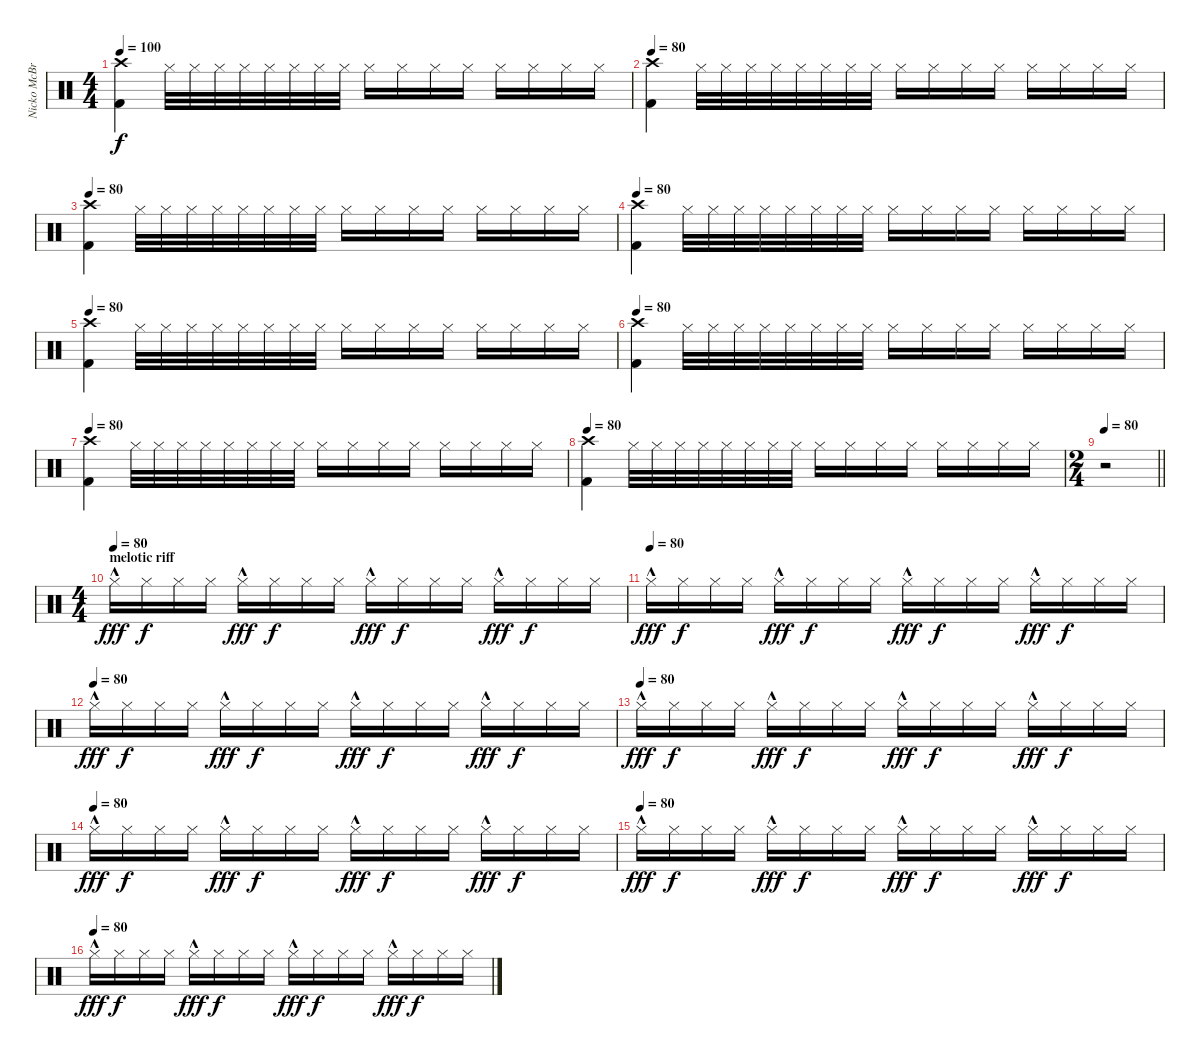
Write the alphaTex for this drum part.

\track ("Nicko McBrain" "Nicko McBr") {instrument percussion}
\staff {score}
\articulation defaults
\ts (4 4)
\tempo 100
\tempo 80
\tempo 100
\clef neutral
\ks c
("Crash high (hit)" "Kick (hit) 2").4{dy f} "Hi-Hat (closed)".32 "Hi-Hat (closed)".32 "Hi-Hat (closed)".32 "Hi-Hat (closed)".32 "Hi-Hat (closed)".32 "Hi-Hat (closed)".32 "Hi-Hat (closed)".32 "Hi-Hat (closed)".32 "Hi-Hat (closed)".16 "Hi-Hat (closed)".16 "Hi-Hat (closed)".16 "Hi-Hat (closed)".16 "Hi-Hat (closed)".16 "Hi-Hat (closed)".16 "Hi-Hat (closed)".16 "Hi-Hat (closed)".16 |
\tempo 80
("Crash high (hit)" "Kick (hit) 2").4 "Hi-Hat (closed)".32 "Hi-Hat (closed)".32 "Hi-Hat (closed)".32 "Hi-Hat (closed)".32 "Hi-Hat (closed)".32 "Hi-Hat (closed)".32 "Hi-Hat (closed)".32 "Hi-Hat (closed)".32 "Hi-Hat (closed)".16 "Hi-Hat (closed)".16 "Hi-Hat (closed)".16 "Hi-Hat (closed)".16 "Hi-Hat (closed)".16 "Hi-Hat (closed)".16 "Hi-Hat (closed)".16 "Hi-Hat (closed)".16 |
\tempo 80
("Crash high (hit)" "Kick (hit) 2").4 "Hi-Hat (closed)".32 "Hi-Hat (closed)".32 "Hi-Hat (closed)".32 "Hi-Hat (closed)".32 "Hi-Hat (closed)".32 "Hi-Hat (closed)".32 "Hi-Hat (closed)".32 "Hi-Hat (closed)".32 "Hi-Hat (closed)".16 "Hi-Hat (closed)".16 "Hi-Hat (closed)".16 "Hi-Hat (closed)".16 "Hi-Hat (closed)".16 "Hi-Hat (closed)".16 "Hi-Hat (closed)".16 "Hi-Hat (closed)".16 |
\tempo 80
("Crash high (hit)" "Kick (hit) 2").4 "Hi-Hat (closed)".32 "Hi-Hat (closed)".32 "Hi-Hat (closed)".32 "Hi-Hat (closed)".32 "Hi-Hat (closed)".32 "Hi-Hat (closed)".32 "Hi-Hat (closed)".32 "Hi-Hat (closed)".32 "Hi-Hat (closed)".16 "Hi-Hat (closed)".16 "Hi-Hat (closed)".16 "Hi-Hat (closed)".16 "Hi-Hat (closed)".16 "Hi-Hat (closed)".16 "Hi-Hat (closed)".16 "Hi-Hat (closed)".16 |
\tempo 80
("Crash high (hit)" "Kick (hit) 2").4 "Hi-Hat (closed)".32 "Hi-Hat (closed)".32 "Hi-Hat (closed)".32 "Hi-Hat (closed)".32 "Hi-Hat (closed)".32 "Hi-Hat (closed)".32 "Hi-Hat (closed)".32 "Hi-Hat (closed)".32 "Hi-Hat (closed)".16 "Hi-Hat (closed)".16 "Hi-Hat (closed)".16 "Hi-Hat (closed)".16 "Hi-Hat (closed)".16 "Hi-Hat (closed)".16 "Hi-Hat (closed)".16 "Hi-Hat (closed)".16 |
\tempo 80
("Crash high (hit)" "Kick (hit) 2").4 "Hi-Hat (closed)".32 "Hi-Hat (closed)".32 "Hi-Hat (closed)".32 "Hi-Hat (closed)".32 "Hi-Hat (closed)".32 "Hi-Hat (closed)".32 "Hi-Hat (closed)".32 "Hi-Hat (closed)".32 "Hi-Hat (closed)".16 "Hi-Hat (closed)".16 "Hi-Hat (closed)".16 "Hi-Hat (closed)".16 "Hi-Hat (closed)".16 "Hi-Hat (closed)".16 "Hi-Hat (closed)".16 "Hi-Hat (closed)".16 |
\tempo 80
("Crash high (hit)" "Kick (hit) 2").4 "Hi-Hat (closed)".32 "Hi-Hat (closed)".32 "Hi-Hat (closed)".32 "Hi-Hat (closed)".32 "Hi-Hat (closed)".32 "Hi-Hat (closed)".32 "Hi-Hat (closed)".32 "Hi-Hat (closed)".32 "Hi-Hat (closed)".16 "Hi-Hat (closed)".16 "Hi-Hat (closed)".16 "Hi-Hat (closed)".16 "Hi-Hat (closed)".16 "Hi-Hat (closed)".16 "Hi-Hat (closed)".16 "Hi-Hat (closed)".16 |
\tempo 80
("Crash high (hit)" "Kick (hit) 2").4 "Hi-Hat (closed)".32 "Hi-Hat (closed)".32 "Hi-Hat (closed)".32 "Hi-Hat (closed)".32 "Hi-Hat (closed)".32 "Hi-Hat (closed)".32 "Hi-Hat (closed)".32 "Hi-Hat (closed)".32 "Hi-Hat (closed)".16 "Hi-Hat (closed)".16 "Hi-Hat (closed)".16 "Hi-Hat (closed)".16 "Hi-Hat (closed)".16 "Hi-Hat (closed)".16 "Hi-Hat (closed)".16 "Hi-Hat (closed)".16 |
\ts (2 4)
\tempo 80
\barLineRight lightlight
r.2 |
\ts (4 4)
\section ("" "melotic riff")
\tempo (80)
"Hi-Hat (closed)"{hac}.16{dy fff} "Hi-Hat (closed)".16{dy f} "Hi-Hat (closed)".16 "Hi-Hat (closed)".16 "Hi-Hat (closed)"{hac}.16{dy fff} "Hi-Hat (closed)".16{dy f} "Hi-Hat (closed)".16 "Hi-Hat (closed)".16 "Hi-Hat (closed)"{hac}.16{dy fff} "Hi-Hat (closed)".16{dy f} "Hi-Hat (closed)".16 "Hi-Hat (closed)".16 "Hi-Hat (closed)"{hac}.16{dy fff} "Hi-Hat (closed)".16{dy f} "Hi-Hat (closed)".16 "Hi-Hat (closed)".16 |
\tempo (80)
"Hi-Hat (closed)"{hac}.16{dy fff} "Hi-Hat (closed)".16{dy f} "Hi-Hat (closed)".16 "Hi-Hat (closed)".16 "Hi-Hat (closed)"{hac}.16{dy fff} "Hi-Hat (closed)".16{dy f} "Hi-Hat (closed)".16 "Hi-Hat (closed)".16 "Hi-Hat (closed)"{hac}.16{dy fff} "Hi-Hat (closed)".16{dy f} "Hi-Hat (closed)".16 "Hi-Hat (closed)".16 "Hi-Hat (closed)"{hac}.16{dy fff} "Hi-Hat (closed)".16{dy f} "Hi-Hat (closed)".16 "Hi-Hat (closed)".16 |
\tempo (80)
"Hi-Hat (closed)"{hac}.16{dy fff} "Hi-Hat (closed)".16{dy f} "Hi-Hat (closed)".16 "Hi-Hat (closed)".16 "Hi-Hat (closed)"{hac}.16{dy fff} "Hi-Hat (closed)".16{dy f} "Hi-Hat (closed)".16 "Hi-Hat (closed)".16 "Hi-Hat (closed)"{hac}.16{dy fff} "Hi-Hat (closed)".16{dy f} "Hi-Hat (closed)".16 "Hi-Hat (closed)".16 "Hi-Hat (closed)"{hac}.16{dy fff} "Hi-Hat (closed)".16{dy f} "Hi-Hat (closed)".16 "Hi-Hat (closed)".16 |
\tempo (80)
"Hi-Hat (closed)"{hac}.16{dy fff} "Hi-Hat (closed)".16{dy f} "Hi-Hat (closed)".16 "Hi-Hat (closed)".16 "Hi-Hat (closed)"{hac}.16{dy fff} "Hi-Hat (closed)".16{dy f} "Hi-Hat (closed)".16 "Hi-Hat (closed)".16 "Hi-Hat (closed)"{hac}.16{dy fff} "Hi-Hat (closed)".16{dy f} "Hi-Hat (closed)".16 "Hi-Hat (closed)".16 "Hi-Hat (closed)"{hac}.16{dy fff} "Hi-Hat (closed)".16{dy f} "Hi-Hat (closed)".16 "Hi-Hat (closed)".16 |
\tempo (80)
"Hi-Hat (closed)"{hac}.16{dy fff} "Hi-Hat (closed)".16{dy f} "Hi-Hat (closed)".16 "Hi-Hat (closed)".16 "Hi-Hat (closed)"{hac}.16{dy fff} "Hi-Hat (closed)".16{dy f} "Hi-Hat (closed)".16 "Hi-Hat (closed)".16 "Hi-Hat (closed)"{hac}.16{dy fff} "Hi-Hat (closed)".16{dy f} "Hi-Hat (closed)".16 "Hi-Hat (closed)".16 "Hi-Hat (closed)"{hac}.16{dy fff} "Hi-Hat (closed)".16{dy f} "Hi-Hat (closed)".16 "Hi-Hat (closed)".16 |
\tempo (80)
"Hi-Hat (closed)"{hac}.16{dy fff} "Hi-Hat (closed)".16{dy f} "Hi-Hat (closed)".16 "Hi-Hat (closed)".16 "Hi-Hat (closed)"{hac}.16{dy fff} "Hi-Hat (closed)".16{dy f} "Hi-Hat (closed)".16 "Hi-Hat (closed)".16 "Hi-Hat (closed)"{hac}.16{dy fff} "Hi-Hat (closed)".16{dy f} "Hi-Hat (closed)".16 "Hi-Hat (closed)".16 "Hi-Hat (closed)"{hac}.16{dy fff} "Hi-Hat (closed)".16{dy f} "Hi-Hat (closed)".16 "Hi-Hat (closed)".16 |
\tempo (80)
"Hi-Hat (closed)"{hac}.16{dy fff} "Hi-Hat (closed)".16{dy f} "Hi-Hat (closed)".16 "Hi-Hat (closed)".16 "Hi-Hat (closed)"{hac}.16{dy fff} "Hi-Hat (closed)".16{dy f} "Hi-Hat (closed)".16 "Hi-Hat (closed)".16 "Hi-Hat (closed)"{hac}.16{dy fff} "Hi-Hat (closed)".16{dy f} "Hi-Hat (closed)".16 "Hi-Hat (closed)".16 "Hi-Hat (closed)"{hac}.16{dy fff} "Hi-Hat (closed)".16{dy f} "Hi-Hat (closed)".16 "Hi-Hat (closed)".16
